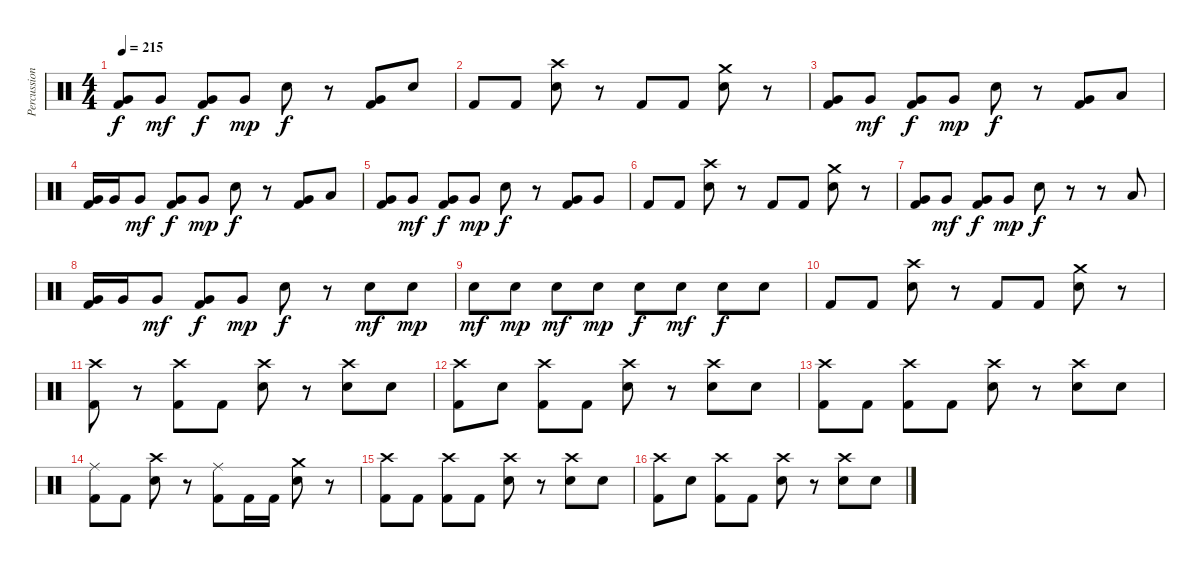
\track ("Percussion" "Percussion") {instrument percussion}
\staff {score}
\articulation defaults
\ts (4 4)
\tempo 215
\clef neutral
\ks c
("Very Low Tom (hit)" "Kick (hit) 2").8{dy f} "Very Low Tom (hit)".8{dy mf} ("Very Low Tom (hit)" "Kick (hit) 2").8{dy f} "Very Low Tom (hit)".8{dy mp} "Electric Snare (hit)".8{dy f} r.8 ("Very Low Tom (hit)" "Kick (hit) 2").8 "Electric Snare (hit)".8 |
"Kick (hit) 2".8 "Kick (hit) 2".8 ("Crash high (hit)" "Electric Snare (hit)").8 r.8 "Kick (hit) 2".8 "Kick (hit) 2".8 ("Crash medium (hit)" "Electric Snare (hit)").8 r.8 |
("Very Low Tom (hit)" "Kick (hit) 2").8 "Very Low Tom (hit)".8{dy mf} ("Very Low Tom (hit)" "Kick (hit) 2").8{dy f} "Very Low Tom (hit)".8{dy mp} "Electric Snare (hit)".8{dy f} r.8 ("Very Low Tom (hit)" "Kick (hit) 2").8 "Low Tom (hit)".8 |
("Very Low Tom (hit)" "Kick (hit) 2").16 "Very Low Tom (hit)".16 "Very Low Tom (hit)".8{dy mf} ("Very Low Tom (hit)" "Kick (hit) 2").8{dy f} "Very Low Tom (hit)".8{dy mp} "Electric Snare (hit)".8{dy f} r.8 ("Very Low Tom (hit)" "Kick (hit) 2").8 "Low Tom (hit)".8 |
("Very Low Tom (hit)" "Kick (hit) 2").8 "Very Low Tom (hit)".8{dy mf} ("Very Low Tom (hit)" "Kick (hit) 2").8{dy f} "Very Low Tom (hit)".8{dy mp} "Electric Snare (hit)".8{dy f} r.8 ("Very Low Tom (hit)" "Kick (hit) 2").8 "Very Low Tom (hit)".8 |
"Kick (hit) 2".8 "Kick (hit) 2".8 ("Crash high (hit)" "Electric Snare (hit)").8 r.8 "Kick (hit) 2".8 "Kick (hit) 2".8 ("Crash medium (hit)" "Electric Snare (hit)").8 r.8 |
("Very Low Tom (hit)" "Kick (hit) 2").8 "Very Low Tom (hit)".8{dy mf} ("Very Low Tom (hit)" "Kick (hit) 2").8{dy f} "Very Low Tom (hit)".8{dy mp} "Electric Snare (hit)".8{dy f} r.8 r.8 "Low Tom (hit)".8 |
("Very Low Tom (hit)" "Kick (hit) 2").16 "Very Low Tom (hit)".16 "Very Low Tom (hit)".8{dy mf} ("Very Low Tom (hit)" "Kick (hit) 2").8{dy f} "Very Low Tom (hit)".8{dy mp} "Electric Snare (hit)".8{dy f} r.8 "Electric Snare (hit)".8{dy mf} "Electric Snare (hit)".8{dy mp} |
"Electric Snare (hit)".8{dy mf} "Electric Snare (hit)".8{dy mp} "Electric Snare (hit)".8{dy mf} "Electric Snare (hit)".8{dy mp} "Electric Snare (hit)".8{dy f} "Electric Snare (hit)".8{dy mf} "Electric Snare (hit)".8{dy f} "Electric Snare (hit)".8 |
"Kick (hit) 2".8 "Kick (hit) 2".8 ("Crash high (hit)" "Electric Snare (hit)").8 r.8 "Kick (hit) 2".8 "Kick (hit) 2".8 ("Crash medium (hit)" "Electric Snare (hit)").8 r.8 |
("Crash high (hit)" "Kick (hit) 2").8 r.8 ("Crash high (hit)" "Kick (hit) 2").8 "Kick (hit) 2".8 ("Crash high (hit)" "Electric Snare (hit)").8 r.8 ("Crash high (hit)" "Electric Snare (hit)").8 "Electric Snare (hit)".8 |
("Crash high (hit)" "Kick (hit) 2").8 "Electric Snare (hit)".8 ("Crash high (hit)" "Kick (hit) 2").8 "Kick (hit) 2".8 ("Crash high (hit)" "Electric Snare (hit)").8 r.8 ("Crash high (hit)" "Electric Snare (hit)").8 "Electric Snare (hit)".8 |
("Crash high (hit)" "Kick (hit) 2").8 "Kick (hit) 2".8 ("Crash high (hit)" "Kick (hit) 2").8 "Kick (hit) 2".8 ("Crash high (hit)" "Electric Snare (hit)").8 r.8 ("Crash high (hit)" "Electric Snare (hit)").8 "Electric Snare (hit)".8 |
("Ride (middle)" "Kick (hit) 2").8 "Kick (hit) 2".8 ("Crash high (hit)" "Electric Snare (hit)").8 r.8 ("Ride (middle)" "Kick (hit) 2").8 "Kick (hit) 2".16 "Kick (hit) 2".16 ("Crash medium (hit)" "Electric Snare (hit)").8 r.8 |
("Crash high (hit)" "Kick (hit) 2").8 "Kick (hit) 2".8 ("Crash high (hit)" "Kick (hit) 2").8 "Kick (hit) 2".8 ("Crash high (hit)" "Electric Snare (hit)").8 r.8 ("Crash high (hit)" "Electric Snare (hit)").8 "Electric Snare (hit)".8 |
("Crash high (hit)" "Kick (hit) 2").8 "Electric Snare (hit)".8 ("Crash high (hit)" "Kick (hit) 2").8 "Kick (hit) 2".8 ("Crash high (hit)" "Electric Snare (hit)").8 r.8 ("Crash high (hit)" "Electric Snare (hit)").8 "Electric Snare (hit)".8
